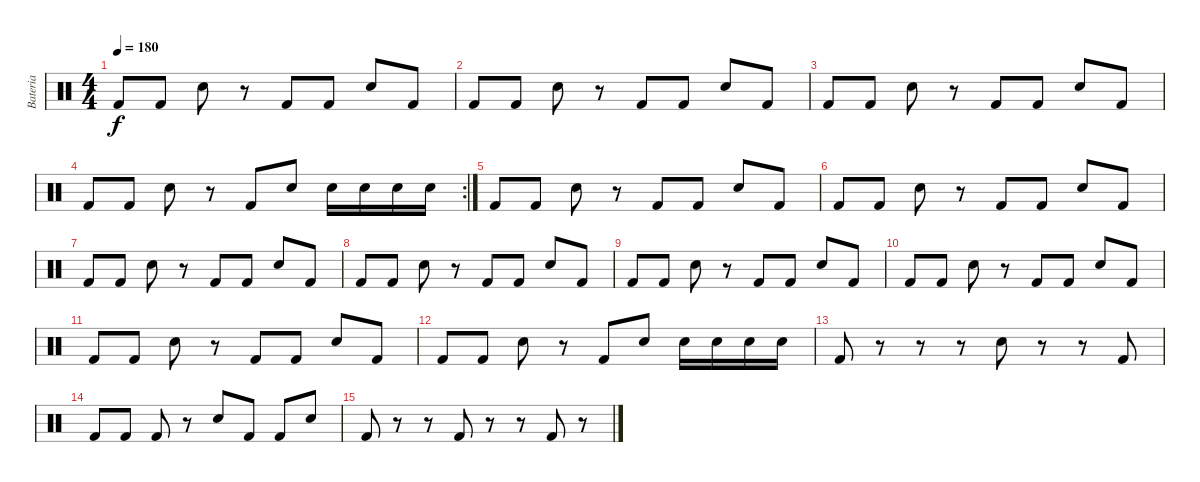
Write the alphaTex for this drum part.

\track ("Bateria" "Bateria") {instrument percussion}
\staff {score}
\articulation defaults
\ts (4 4)
\tempo 180
\clef neutral
\ks c "Kick (hit) 2".8{dy f} "Kick (hit) 2".8 "Electric Snare (hit)".8
r.8 "Kick (hit) 2".8 "Kick (hit) 2".8 "Electric Snare (hit)".8 "Kick (hit) 2".8 |
"Kick (hit) 2".8 "Kick (hit) 2".8 "Electric Snare (hit)".8 r.8 "Kick (hit) 2".8 "Kick (hit) 2".8 "Electric Snare (hit)".8 "Kick (hit) 2".8 |
"Kick (hit) 2".8 "Kick (hit) 2".8 "Electric Snare (hit)".8 r.8 "Kick (hit) 2".8 "Kick (hit) 2".8 "Electric Snare (hit)".8 "Kick (hit) 2".8 |
\rc 2 "Kick (hit) 2".8 "Kick (hit) 2".8 "Electric Snare (hit)".8
r.8 "Kick (hit) 2".8 "Electric Snare (hit)".8 "Electric Snare (hit)".16 "Electric Snare (hit)".16 "Electric Snare (hit)".16 "Electric Snare (hit)".16 |
"Kick (hit) 2".8 "Kick (hit) 2".8 "Electric Snare (hit)".8 r.8 "Kick (hit) 2".8 "Kick (hit) 2".8 "Electric Snare (hit)".8 "Kick (hit) 2".8 |
"Kick (hit) 2".8 "Kick (hit) 2".8 "Electric Snare (hit)".8 r.8 "Kick (hit) 2".8 "Kick (hit) 2".8 "Electric Snare (hit)".8 "Kick (hit) 2".8 |
"Kick (hit) 2".8 "Kick (hit) 2".8 "Electric Snare (hit)".8 r.8 "Kick (hit) 2".8 "Kick (hit) 2".8 "Electric Snare (hit)".8 "Kick (hit) 2".8 |
"Kick (hit) 2".8 "Kick (hit) 2".8 "Electric Snare (hit)".8 r.8 "Kick (hit) 2".8 "Kick (hit) 2".8 "Electric Snare (hit)".8 "Kick (hit) 2".8 |
"Kick (hit) 2".8 "Kick (hit) 2".8 "Electric Snare (hit)".8 r.8 "Kick (hit) 2".8 "Kick (hit) 2".8 "Electric Snare (hit)".8 "Kick (hit) 2".8 |
"Kick (hit) 2".8 "Kick (hit) 2".8 "Electric Snare (hit)".8 r.8 "Kick (hit) 2".8 "Kick (hit) 2".8 "Electric Snare (hit)".8 "Kick (hit) 2".8 |
"Kick (hit) 2".8 "Kick (hit) 2".8 "Electric Snare (hit)".8 r.8 "Kick (hit) 2".8 "Kick (hit) 2".8 "Electric Snare (hit)".8 "Kick (hit) 2".8 |
"Kick (hit) 2".8 "Kick (hit) 2".8 "Electric Snare (hit)".8 r.8 "Kick (hit) 2".8 "Electric Snare (hit)".8 "Electric Snare (hit)".16 "Electric Snare (hit)".16 "Electric Snare (hit)".16 "Electric Snare (hit)".16 |
"Kick (hit) 2".8 r.8 r.8 r.8 "Electric Snare (hit)".8 r.8 r.8 "Kick (hit) 2".8 |
"Kick (hit) 2".8 "Kick (hit) 2".8 "Kick (hit) 2".8 r.8 "Electric Snare (hit)".8 "Kick (hit) 2".8 "Kick (hit) 2".8 "Electric Snare (hit)".8 |
"Kick (hit) 2".8 r.8 r.8 "Kick (hit) 2".8 r.8 r.8 "Kick (hit) 2".8 r.8
